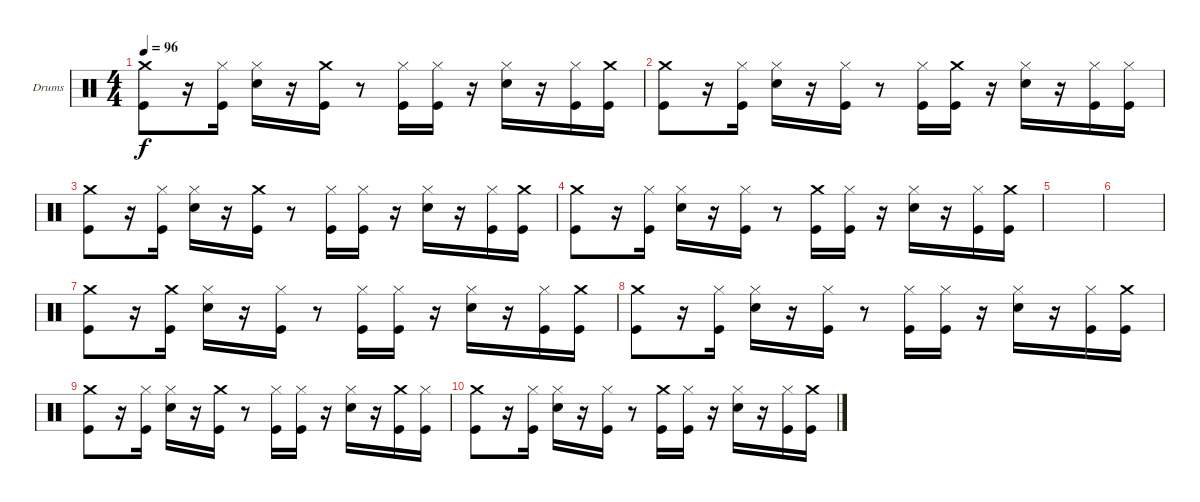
\defaultSystemsLayout 4
\bracketExtendMode groupsimilarinstruments
\firstSystemTrackNameOrientation horizontal
\otherSystemsTrackNameOrientation horizontal
\track ("Павел Тетерин(Pa$ok)" "Drums") {instrument percussion}
\staff {score}
\articulation defaults
\ts (4 4)
\tempo 96
\clef neutral
\ks c
("Crash medium (hit)" "Kick (hit)").8{dy f} r.16 ("Hi-Hat (closed)" "Kick (hit)").16 ("Snare (hit) 2" "Hi-Hat (closed)").16 r.16 ("Crash medium (hit)" "Kick (hit)").16 r.8 ("Hi-Hat (closed)" "Kick (hit)").16 ("Hi-Hat (closed)" "Kick (hit)").16 r.16 ("Snare (hit) 2" "Hi-Hat (closed)").16 r.16 ("Hi-Hat (closed)" "Kick (hit)").16 ("Crash medium (hit)" "Kick (hit)").16 |
("Crash medium (hit)" "Kick (hit)").8 r.16 ("Hi-Hat (closed)" "Kick (hit)").16 ("Snare (hit) 2" "Hi-Hat (closed)").16 r.16 ("Hi-Hat (closed)" "Kick (hit)").16 r.8 ("Hi-Hat (closed)" "Kick (hit)").16 ("Crash medium (hit)" "Kick (hit)").16 r.16 ("Snare (hit) 2" "Hi-Hat (closed)").16 r.16 ("Hi-Hat (closed)" "Kick (hit)").16 ("Hi-Hat (closed)" "Kick (hit)").16 |
("Crash medium (hit)" "Kick (hit)").8 r.16 ("Hi-Hat (closed)" "Kick (hit)").16 ("Snare (hit) 2" "Hi-Hat (closed)").16 r.16 ("Crash medium (hit)" "Kick (hit)").16 r.8 ("Hi-Hat (closed)" "Kick (hit)").16 ("Hi-Hat (closed)" "Kick (hit)").16 r.16 ("Snare (hit) 2" "Hi-Hat (closed)").16 r.16 ("Hi-Hat (closed)" "Kick (hit)").16 ("Crash medium (hit)" "Kick (hit)").16 |
("Crash medium (hit)" "Kick (hit)").8 r.16 ("Hi-Hat (closed)" "Kick (hit)").16 ("Snare (hit) 2" "Hi-Hat (closed)").16 r.16 ("Hi-Hat (closed)" "Kick (hit)").16 r.8 ("Crash medium (hit)" "Kick (hit)").16 ("Hi-Hat (closed)" "Kick (hit)").16 r.16 ("Snare (hit) 2" "Hi-Hat (closed)").16 r.16 ("Hi-Hat (closed)" "Kick (hit)").16 ("Crash medium (hit)" "Kick (hit)").16 |
|
|
("Crash medium (hit)" "Kick (hit)").8 r.16 ("Crash medium (hit)" "Kick (hit)").16 ("Snare (hit) 2" "Hi-Hat (closed)").16 r.16 ("Hi-Hat (closed)" "Kick (hit)").16 r.8 ("Hi-Hat (closed)" "Kick (hit)").16 ("Hi-Hat (closed)" "Kick (hit)").16 r.16 ("Snare (hit) 2" "Hi-Hat (closed)").16 r.16 ("Hi-Hat (closed)" "Kick (hit)").16 ("Crash medium (hit)" "Kick (hit)").16 |
("Crash medium (hit)" "Kick (hit)").8 r.16 ("Hi-Hat (closed)" "Kick (hit)").16 ("Snare (hit) 2" "Hi-Hat (closed)").16 r.16 ("Hi-Hat (closed)" "Kick (hit)").16 r.8 ("Hi-Hat (closed)" "Kick (hit)").16 ("Hi-Hat (closed)" "Kick (hit)").16 r.16 ("Snare (hit) 2" "Hi-Hat (closed)").16 r.16 ("Hi-Hat (closed)" "Kick (hit)").16 ("Crash medium (hit)" "Kick (hit)").16 |
("Crash medium (hit)" "Kick (hit)").8 r.16 ("Hi-Hat (closed)" "Kick (hit)").16 ("Snare (hit) 2" "Hi-Hat (closed)").16 r.16 ("Crash medium (hit)" "Kick (hit)").16 r.8 ("Hi-Hat (closed)" "Kick (hit)").16 ("Hi-Hat (closed)" "Kick (hit)").16 r.16 ("Snare (hit) 2" "Hi-Hat (closed)").16 r.16 ("Crash medium (hit)" "Kick (hit)").16 ("Hi-Hat (closed)" "Kick (hit)").16 |
("Crash medium (hit)" "Kick (hit)").8 r.16 ("Hi-Hat (closed)" "Kick (hit)").16 ("Snare (hit) 2" "Hi-Hat (closed)").16 r.16 ("Hi-Hat (closed)" "Kick (hit)").16 r.8 ("Crash medium (hit)" "Kick (hit)").16 ("Hi-Hat (closed)" "Kick (hit)").16 r.16 ("Snare (hit) 2" "Hi-Hat (closed)").16 r.16 ("Hi-Hat (closed)" "Kick (hit)").16 ("Crash medium (hit)" "Kick (hit)").16
